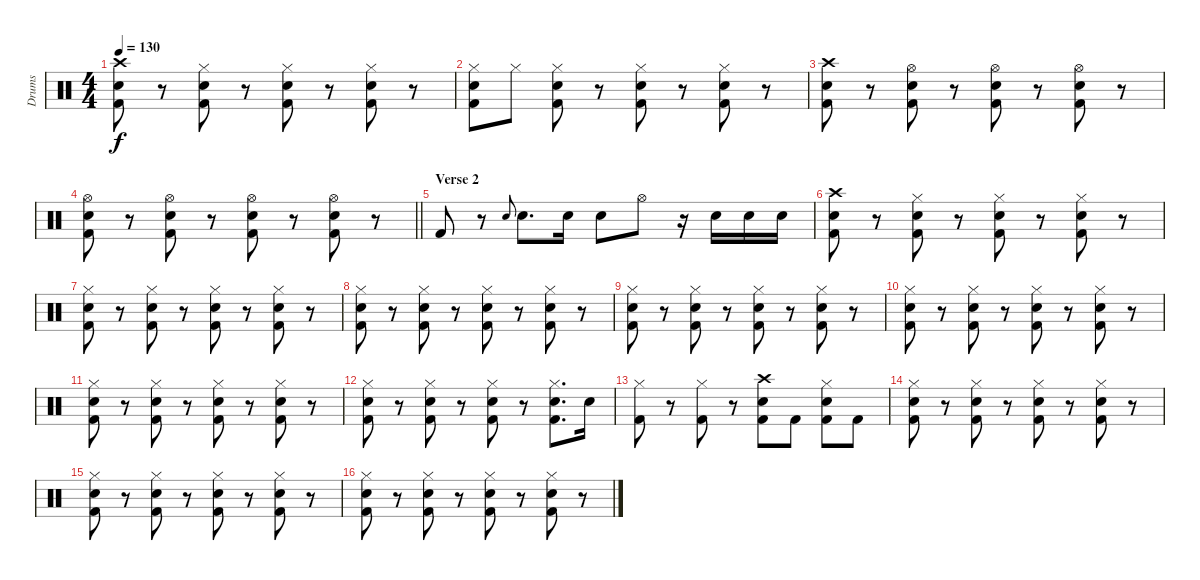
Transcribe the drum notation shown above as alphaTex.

\track ("Drums" "Drums") {instrument percussion}
\staff {score}
\articulation defaults
\ts (4 4)
\tempo 130
\clef neutral
\ks c
("Crash high (hit)" "Snare (hit) 2" "Kick (hit) 2").8{dy f} r.8 ("Hi-Hat (closed)" "Snare (hit) 2" "Kick (hit) 2").8 r.8 ("Hi-Hat (closed)" "Snare (hit) 2" "Kick (hit) 2").8 r.8 ("Hi-Hat (closed)" "Snare (hit) 2" "Kick (hit) 2").8 r.8 |
("Hi-Hat (closed)" "Snare (hit) 2" "Kick (hit) 2").8 "Hi-Hat (closed)".8 ("Hi-Hat (closed)" "Snare (hit) 2" "Kick (hit) 2").8 r.8 ("Hi-Hat (closed)" "Snare (hit) 2" "Kick (hit) 2").8 r.8 ("Hi-Hat (closed)" "Snare (hit) 2" "Kick (hit) 2").8 r.8 |
("Crash high (hit)" "Snare (hit) 2" "Kick (hit) 2").8 r.8 ("Hi-Hat (open)" "Snare (hit) 2" "Kick (hit) 2").8 r.8 ("Hi-Hat (open)" "Snare (hit) 2" "Kick (hit) 2").8 r.8 ("Hi-Hat (open)" "Snare (hit) 2" "Kick (hit) 2").8 r.8 |
\barLineRight lightlight
("Hi-Hat (open)" "Snare (hit) 2" "Kick (hit) 2").8 r.8 ("Hi-Hat (open)" "Snare (hit) 2" "Kick (hit) 2").8 r.8 ("Hi-Hat (open)" "Snare (hit) 2" "Kick (hit) 2").8 r.8 ("Hi-Hat (open)" "Snare (hit) 2" "Kick (hit) 2").8 r.8 |
\section ("" "Verse 2")
"Kick (hit) 2".8 r.8 "Snare (hit) 2".8{gr onbeat} "Snare (hit) 2".8{d} "Snare (hit) 2".16 "Snare (hit) 2".8 "Hi-Hat (open)".8 r.16 "Snare (hit) 2".16 "Snare (hit) 2".16 "Snare (hit) 2".16 |
("Crash high (hit)" "Snare (hit) 2" "Kick (hit) 2").8 r.8 ("Hi-Hat (closed)" "Snare (hit) 2" "Kick (hit) 2").8 r.8 ("Hi-Hat (closed)" "Snare (hit) 2" "Kick (hit) 2").8 r.8 ("Hi-Hat (closed)" "Snare (hit) 2" "Kick (hit) 2").8 r.8 |
("Hi-Hat (closed)" "Snare (hit) 2" "Kick (hit) 2").8 r.8 ("Hi-Hat (closed)" "Snare (hit) 2" "Kick (hit) 2").8 r.8 ("Hi-Hat (closed)" "Snare (hit) 2" "Kick (hit) 2").8 r.8 ("Hi-Hat (closed)" "Snare (hit) 2" "Kick (hit) 2").8 r.8 |
("Hi-Hat (closed)" "Snare (hit) 2" "Kick (hit) 2").8 r.8 ("Hi-Hat (closed)" "Snare (hit) 2" "Kick (hit) 2").8 r.8 ("Hi-Hat (closed)" "Snare (hit) 2" "Kick (hit) 2").8 r.8 ("Hi-Hat (closed)" "Snare (hit) 2" "Kick (hit) 2").8 r.8 |
("Hi-Hat (closed)" "Snare (hit) 2" "Kick (hit) 2").8 r.8 ("Hi-Hat (closed)" "Snare (hit) 2" "Kick (hit) 2").8 r.8 ("Hi-Hat (closed)" "Snare (hit) 2" "Kick (hit) 2").8 r.8 ("Hi-Hat (closed)" "Snare (hit) 2" "Kick (hit) 2").8 r.8 |
("Hi-Hat (closed)" "Snare (hit) 2" "Kick (hit) 2").8 r.8 ("Hi-Hat (closed)" "Snare (hit) 2" "Kick (hit) 2").8 r.8 ("Hi-Hat (closed)" "Snare (hit) 2" "Kick (hit) 2").8 r.8 ("Hi-Hat (closed)" "Snare (hit) 2" "Kick (hit) 2").8 r.8 |
("Hi-Hat (closed)" "Snare (hit) 2" "Kick (hit) 2").8 r.8 ("Hi-Hat (closed)" "Snare (hit) 2" "Kick (hit) 2").8 r.8 ("Hi-Hat (closed)" "Snare (hit) 2" "Kick (hit) 2").8 r.8 ("Hi-Hat (closed)" "Snare (hit) 2" "Kick (hit) 2").8 r.8 |
("Hi-Hat (closed)" "Snare (hit) 2" "Kick (hit) 2").8 r.8 ("Hi-Hat (closed)" "Snare (hit) 2" "Kick (hit) 2").8 r.8 ("Hi-Hat (closed)" "Snare (hit) 2" "Kick (hit) 2").8 r.8 ("Hi-Hat (closed)" "Snare (hit) 2" "Kick (hit) 2").8{d} "Snare (hit) 2".16 |
("Hi-Hat (closed)" "Kick (hit) 2").8 r.8 ("Hi-Hat (closed)" "Kick (hit) 2").8 r.8 ("Crash high (hit)" "Snare (hit) 2" "Kick (hit) 2").8 "Kick (hit) 2".8 ("Hi-Hat (closed)" "Snare (hit) 2" "Kick (hit) 2").8 "Kick (hit) 2".8 |
("Hi-Hat (closed)" "Snare (hit) 2" "Kick (hit) 2").8 r.8 ("Hi-Hat (closed)" "Snare (hit) 2" "Kick (hit) 2").8 r.8 ("Hi-Hat (closed)" "Snare (hit) 2" "Kick (hit) 2").8 r.8 ("Hi-Hat (closed)" "Snare (hit) 2" "Kick (hit) 2").8 r.8 |
("Hi-Hat (closed)" "Snare (hit) 2" "Kick (hit) 2").8 r.8 ("Hi-Hat (closed)" "Snare (hit) 2" "Kick (hit) 2").8 r.8 ("Hi-Hat (closed)" "Snare (hit) 2" "Kick (hit) 2").8 r.8 ("Hi-Hat (closed)" "Snare (hit) 2" "Kick (hit) 2").8 r.8 |
("Hi-Hat (closed)" "Snare (hit) 2" "Kick (hit) 2").8 r.8 ("Hi-Hat (closed)" "Snare (hit) 2" "Kick (hit) 2").8 r.8 ("Hi-Hat (closed)" "Snare (hit) 2" "Kick (hit) 2").8 r.8 ("Hi-Hat (closed)" "Snare (hit) 2" "Kick (hit) 2").8 r.8
